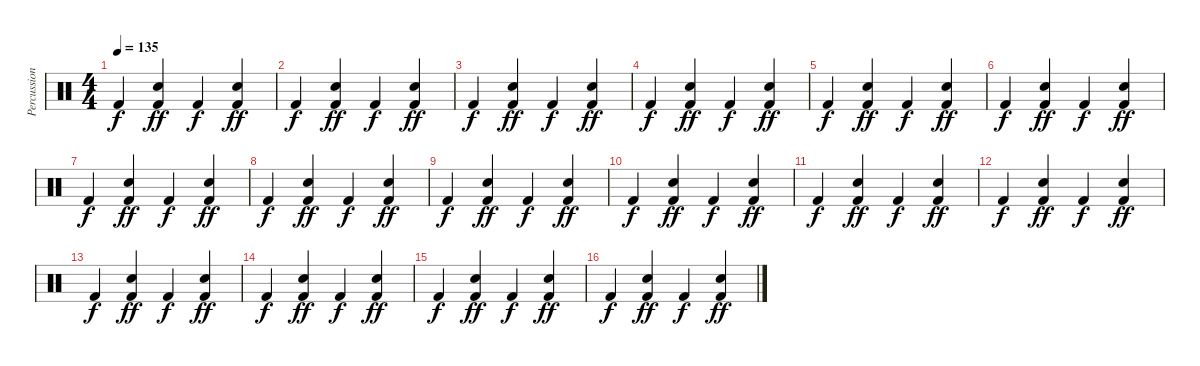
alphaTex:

\track ("Percussion" "Percussion") {instrument percussion}
\staff {score}
\articulation defaults
\ts (4 4)
\tempo 135
\clef neutral
\ks c "Kick (hit) 2".4{dy f}
("Electric Snare (hit)" "Kick (hit) 2").4{dy ff} "Kick (hit) 2".4{dy f} ("Electric Snare (hit)" "Kick (hit) 2").4{dy ff} |
"Kick (hit) 2".4{dy f} ("Electric Snare (hit)" "Kick (hit) 2").4{dy ff} "Kick (hit) 2".4{dy f} ("Electric Snare (hit)" "Kick (hit) 2").4{dy ff} |
"Kick (hit) 2".4{dy f} ("Electric Snare (hit)" "Kick (hit) 2").4{dy ff} "Kick (hit) 2".4{dy f} ("Electric Snare (hit)" "Kick (hit) 2").4{dy ff} |
"Kick (hit) 2".4{dy f} ("Electric Snare (hit)" "Kick (hit) 2").4{dy ff} "Kick (hit) 2".4{dy f} ("Electric Snare (hit)" "Kick (hit) 2").4{dy ff} |
"Kick (hit) 2".4{dy f} ("Electric Snare (hit)" "Kick (hit) 2").4{dy ff} "Kick (hit) 2".4{dy f} ("Electric Snare (hit)" "Kick (hit) 2").4{dy ff} |
"Kick (hit) 2".4{dy f} ("Electric Snare (hit)" "Kick (hit) 2").4{dy ff} "Kick (hit) 2".4{dy f} ("Electric Snare (hit)" "Kick (hit) 2").4{dy ff} |
"Kick (hit) 2".4{dy f} ("Electric Snare (hit)" "Kick (hit) 2").4{dy ff} "Kick (hit) 2".4{dy f} ("Electric Snare (hit)" "Kick (hit) 2").4{dy ff} |
"Kick (hit) 2".4{dy f} ("Electric Snare (hit)" "Kick (hit) 2").4{dy ff} "Kick (hit) 2".4{dy f} ("Electric Snare (hit)" "Kick (hit) 2").4{dy ff} |
"Kick (hit) 2".4{dy f} ("Electric Snare (hit)" "Kick (hit) 2").4{dy ff} "Kick (hit) 2".4{dy f} ("Electric Snare (hit)" "Kick (hit) 2").4{dy ff} |
"Kick (hit) 2".4{dy f} ("Electric Snare (hit)" "Kick (hit) 2").4{dy ff} "Kick (hit) 2".4{dy f} ("Electric Snare (hit)" "Kick (hit) 2").4{dy ff} |
"Kick (hit) 2".4{dy f} ("Electric Snare (hit)" "Kick (hit) 2").4{dy ff} "Kick (hit) 2".4{dy f} ("Electric Snare (hit)" "Kick (hit) 2").4{dy ff} |
"Kick (hit) 2".4{dy f} ("Electric Snare (hit)" "Kick (hit) 2").4{dy ff} "Kick (hit) 2".4{dy f} ("Electric Snare (hit)" "Kick (hit) 2").4{dy ff} |
"Kick (hit) 2".4{dy f} ("Electric Snare (hit)" "Kick (hit) 2").4{dy ff} "Kick (hit) 2".4{dy f} ("Electric Snare (hit)" "Kick (hit) 2").4{dy ff} |
"Kick (hit) 2".4{dy f} ("Electric Snare (hit)" "Kick (hit) 2").4{dy ff} "Kick (hit) 2".4{dy f} ("Electric Snare (hit)" "Kick (hit) 2").4{dy ff} |
"Kick (hit) 2".4{dy f} ("Electric Snare (hit)" "Kick (hit) 2").4{dy ff} "Kick (hit) 2".4{dy f} ("Electric Snare (hit)" "Kick (hit) 2").4{dy ff} |
"Kick (hit) 2".4{dy f} ("Electric Snare (hit)" "Kick (hit) 2").4{dy ff} "Kick (hit) 2".4{dy f} ("Electric Snare (hit)" "Kick (hit) 2").4{dy ff}
